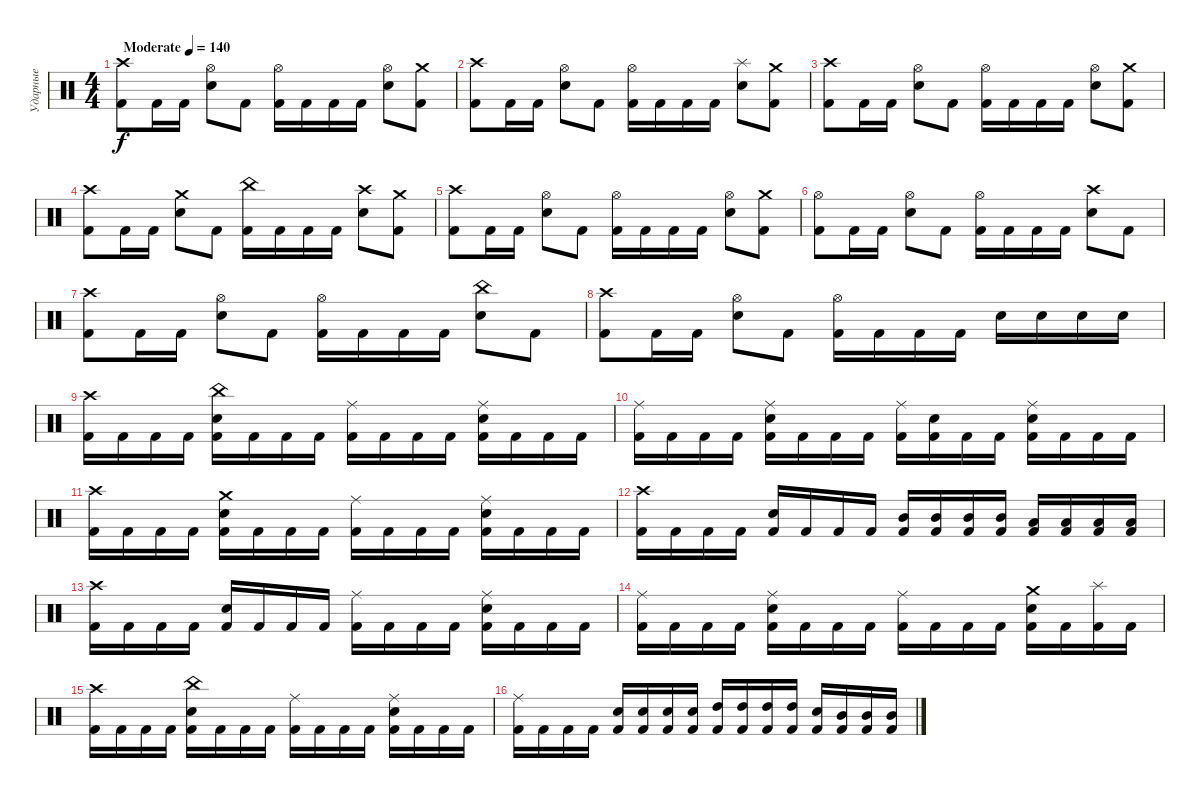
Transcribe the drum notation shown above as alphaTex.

\track ("Ударные" "Ударные") {instrument percussion}
\staff {score}
\articulation defaults
\ts (4 4)
\tempo (140 "Moderate")
\clef neutral
\ks c
("Kick (hit) 2" "Crash high (hit)").8{dy f} "Kick (hit) 2".16 "Kick (hit) 2".16 ("Hi-Hat (open)" "Electric Snare (hit)").8 "Kick (hit) 2".8 ("Kick (hit) 2" "Hi-Hat (open)").16 "Kick (hit) 2".16 "Kick (hit) 2".16 "Kick (hit) 2".16 ("Hi-Hat (open)" "Electric Snare (hit)").8 ("Kick (hit) 2" "Crash medium (hit)").8 |
("Kick (hit) 2" "Crash high (hit)").8 "Kick (hit) 2".16 "Kick (hit) 2".16 ("Hi-Hat (open)" "Electric Snare (hit)").8 "Kick (hit) 2".8 ("Kick (hit) 2" "Hi-Hat (open)").16 "Kick (hit) 2".16 "Kick (hit) 2".16 "Kick (hit) 2".16 ("Splash (hit)" "Electric Snare (hit)").8 ("Kick (hit) 2" "Crash medium (hit)").8 |
("Kick (hit) 2" "Crash high (hit)").8 "Kick (hit) 2".16 "Kick (hit) 2".16 ("Hi-Hat (open)" "Electric Snare (hit)").8 "Kick (hit) 2".8 ("Kick (hit) 2" "Hi-Hat (open)").16 "Kick (hit) 2".16 "Kick (hit) 2".16 "Kick (hit) 2".16 ("Hi-Hat (open)" "Electric Snare (hit)").8 ("Kick (hit) 2" "Crash medium (hit)").8 |
("Kick (hit) 2" "Crash high (hit)").8 "Kick (hit) 2".16 "Kick (hit) 2".16 ("Crash medium (hit)" "Electric Snare (hit)").8 "Kick (hit) 2".8 ("Kick (hit) 2" "China (hit)").16 "Kick (hit) 2".16 "Kick (hit) 2".16 "Kick (hit) 2".16 ("Electric Snare (hit)" "Crash high (hit)").8 ("Kick (hit) 2" "Crash medium (hit)").8 |
("Kick (hit) 2" "Crash high (hit)").8 "Kick (hit) 2".16 "Kick (hit) 2".16 ("Hi-Hat (open)" "Electric Snare (hit)").8 "Kick (hit) 2".8 ("Kick (hit) 2" "Hi-Hat (open)").16 "Kick (hit) 2".16 "Kick (hit) 2".16 "Kick (hit) 2".16 ("Hi-Hat (open)" "Electric Snare (hit)").8 ("Kick (hit) 2" "Crash medium (hit)").8 |
("Kick (hit) 2" "Hi-Hat (open)").8 "Kick (hit) 2".16 "Kick (hit) 2".16 ("Hi-Hat (open)" "Electric Snare (hit)").8 "Kick (hit) 2".8 ("Kick (hit) 2" "Hi-Hat (open)").16 "Kick (hit) 2".16 "Kick (hit) 2".16 "Kick (hit) 2".16 ("Crash high (hit)" "Electric Snare (hit)").8 "Kick (hit) 2".8 |
("Kick (hit) 2" "Crash high (hit)").8 "Kick (hit) 2".16 "Kick (hit) 2".16 ("Hi-Hat (open)" "Electric Snare (hit)").8 "Kick (hit) 2".8 ("Kick (hit) 2" "Hi-Hat (open)").16 "Kick (hit) 2".16 "Kick (hit) 2".16 "Kick (hit) 2".16 ("China (hit)" "Electric Snare (hit)").8 "Kick (hit) 2".8 |
("Kick (hit) 2" "Crash high (hit)").8 "Kick (hit) 2".16 "Kick (hit) 2".16 ("Hi-Hat (open)" "Electric Snare (hit)").8 "Kick (hit) 2".8 ("Kick (hit) 2" "Hi-Hat (open)").16 "Kick (hit) 2".16 "Kick (hit) 2".16 "Kick (hit) 2".16 "Electric Snare (hit)".16 "Electric Snare (hit)".16 "Electric Snare (hit)".16 "Electric Snare (hit)".16 |
("Kick (hit) 2" "Crash high (hit)").16 "Kick (hit) 2".16 "Kick (hit) 2".16 "Kick (hit) 2".16 ("Kick (hit) 2" "China (hit)" "Electric Snare (hit)").16 "Kick (hit) 2".16 "Kick (hit) 2".16 "Kick (hit) 2".16 ("Kick (hit) 2" "Ride (middle)").16 "Kick (hit) 2".16 "Kick (hit) 2".16 "Kick (hit) 2".16 ("Kick (hit) 2" "Ride (middle)" "Electric Snare (hit)").16 "Kick (hit) 2".16 "Kick (hit) 2".16 "Kick (hit) 2".16 |
("Kick (hit) 2" "Ride (middle)").16 "Kick (hit) 2".16 "Kick (hit) 2".16 "Kick (hit) 2".16 ("Kick (hit) 2" "Ride (middle)" "Electric Snare (hit)").16 "Kick (hit) 2".16 "Kick (hit) 2".16 "Kick (hit) 2".16 ("Kick (hit) 2" "Ride (middle)").16 ("Kick (hit) 2" "Electric Snare (hit)").16 "Kick (hit) 2".16 "Kick (hit) 2".16 ("Kick (hit) 2" "Ride (middle)" "Electric Snare (hit)").16 "Kick (hit) 2".16 "Kick (hit) 2".16 "Kick (hit) 2".16 |
("Kick (hit) 2" "Crash high (hit)").16 "Kick (hit) 2".16 "Kick (hit) 2".16 "Kick (hit) 2".16 ("Kick (hit) 2" "Crash medium (hit)" "Electric Snare (hit)").16 "Kick (hit) 2".16 "Kick (hit) 2".16 "Kick (hit) 2".16 ("Kick (hit) 2" "Ride (middle)").16 "Kick (hit) 2".16 "Kick (hit) 2".16 "Kick (hit) 2".16 ("Kick (hit) 2" "Ride (middle)" "Electric Snare (hit)").16 "Kick (hit) 2".16 "Kick (hit) 2".16 "Kick (hit) 2".16 |
("Kick (hit) 2" "Crash high (hit)").16 "Kick (hit) 2".16 "Kick (hit) 2".16 "Kick (hit) 2".16 ("Kick (hit) 2" "Electric Snare (hit)").16 "Kick (hit) 2".16 "Kick (hit) 2".16 "Kick (hit) 2".16 ("Kick (hit) 2" "Mid Tom (hit)").16 ("Kick (hit) 2" "Mid Tom (hit)").16 ("Kick (hit) 2" "Mid Tom (hit)").16 ("Kick (hit) 2" "Mid Tom (hit)").16 ("Kick (hit) 2" "Low Tom (hit)").16 ("Kick (hit) 2" "Low Tom (hit)").16 ("Kick (hit) 2" "Low Tom (hit)").16 ("Kick (hit) 2" "Low Tom (hit)").16 |
("Kick (hit) 2" "Crash high (hit)").16 "Kick (hit) 2".16 "Kick (hit) 2".16 "Kick (hit) 2".16 ("Kick (hit) 2" "Electric Snare (hit)").16 "Kick (hit) 2".16 "Kick (hit) 2".16 "Kick (hit) 2".16 ("Kick (hit) 2" "Ride (middle)").16 "Kick (hit) 2".16 "Kick (hit) 2".16 "Kick (hit) 2".16 ("Kick (hit) 2" "Ride (middle)" "Electric Snare (hit)").16 "Kick (hit) 2".16 "Kick (hit) 2".16 "Kick (hit) 2".16 |
("Kick (hit) 2" "Ride (middle)").16 "Kick (hit) 2".16 "Kick (hit) 2".16 "Kick (hit) 2".16 ("Kick (hit) 2" "Ride (middle)" "Electric Snare (hit)").16 "Kick (hit) 2".16 "Kick (hit) 2".16 "Kick (hit) 2".16 ("Kick (hit) 2" "Ride (middle)").16 "Kick (hit) 2".16 "Kick (hit) 2".16 "Kick (hit) 2".16 ("Kick (hit) 2" "Crash medium (hit)" "Electric Snare (hit)").16 "Kick (hit) 2".16 ("Kick (hit) 2" "Splash (hit)").16 "Kick (hit) 2".16 |
("Kick (hit) 2" "Crash high (hit)").16 "Kick (hit) 2".16 "Kick (hit) 2".16 "Kick (hit) 2".16 ("Kick (hit) 2" "China (hit)" "Electric Snare (hit)").16 "Kick (hit) 2".16 "Kick (hit) 2".16 "Kick (hit) 2".16 ("Kick (hit) 2" "Ride (middle)").16 "Kick (hit) 2".16 "Kick (hit) 2".16 "Kick (hit) 2".16 ("Kick (hit) 2" "Ride (middle)" "Electric Snare (hit)").16 "Kick (hit) 2".16 "Kick (hit) 2".16 "Kick (hit) 2".16 |
("Kick (hit) 2" "Ride (middle)").16 "Kick (hit) 2".16 "Kick (hit) 2".16 "Kick (hit) 2".16 ("Kick (hit) 2" "Electric Snare (hit)").16 ("Kick (hit) 2" "Electric Snare (hit)").16 ("Kick (hit) 2" "Electric Snare (hit)").16 ("Kick (hit) 2" "Electric Snare (hit)").16 ("Kick (hit) 2" "High Tom (hit)").16 ("Kick (hit) 2" "High Tom (hit)").16 ("Kick (hit) 2" "High Tom (hit)").16 ("Kick (hit) 2" "High Tom (hit)").16 ("Kick (hit) 2" "Electric Snare (hit)").16 ("Kick (hit) 2" "Mid Tom (hit)").16 ("Kick (hit) 2" "Mid Tom (hit)").16 ("Kick (hit) 2" "Mid Tom (hit)").16
